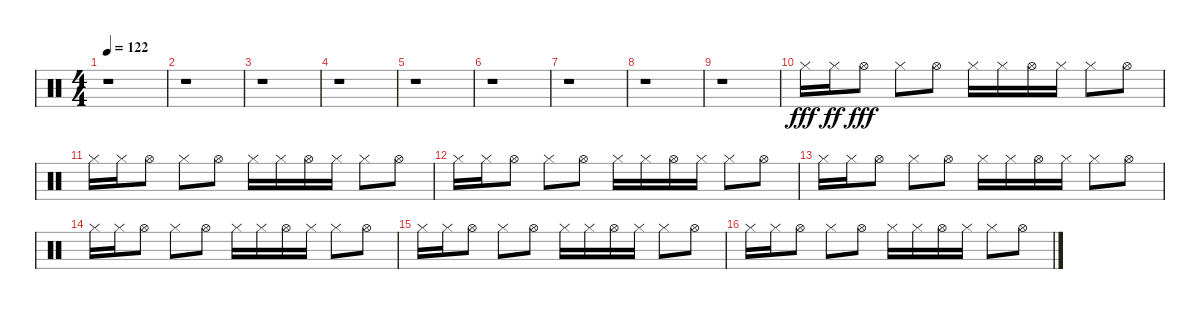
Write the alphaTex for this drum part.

\track "" {instrument percussion}
\staff {score}
\articulation defaults
\ts (4 4)
\tempo 122
\clef neutral
\ks c
r.1{dy fff} |
r.1 |
r.1 |
r.1 |
r.1 |
r.1 |
r.1 |
r.1 |
r.1 |
"Hi-Hat (closed)".16 "Hi-Hat (closed)".16{dy ff} "Hi-Hat (open)".8{dy fff} "Hi-Hat (closed)".8 "Hi-Hat (open)".8 "Hi-Hat (closed)".16 "Hi-Hat (closed)".16 "Hi-Hat (open)".16 "Hi-Hat (closed)".16 "Hi-Hat (closed)".8 "Hi-Hat (open)".8 |
"Hi-Hat (closed)".16 "Hi-Hat (closed)".16 "Hi-Hat (open)".8 "Hi-Hat (closed)".8 "Hi-Hat (open)".8 "Hi-Hat (closed)".16 "Hi-Hat (closed)".16 "Hi-Hat (open)".16 "Hi-Hat (closed)".16 "Hi-Hat (closed)".8 "Hi-Hat (open)".8 |
"Hi-Hat (closed)".16 "Hi-Hat (closed)".16 "Hi-Hat (open)".8 "Hi-Hat (closed)".8 "Hi-Hat (open)".8 "Hi-Hat (closed)".16 "Hi-Hat (closed)".16 "Hi-Hat (open)".16 "Hi-Hat (closed)".16 "Hi-Hat (closed)".8 "Hi-Hat (open)".8 |
"Hi-Hat (closed)".16 "Hi-Hat (closed)".16 "Hi-Hat (open)".8 "Hi-Hat (closed)".8 "Hi-Hat (open)".8 "Hi-Hat (closed)".16 "Hi-Hat (closed)".16 "Hi-Hat (open)".16 "Hi-Hat (closed)".16 "Hi-Hat (closed)".8 "Hi-Hat (open)".8 |
"Hi-Hat (closed)".16 "Hi-Hat (closed)".16 "Hi-Hat (open)".8 "Hi-Hat (closed)".8 "Hi-Hat (open)".8 "Hi-Hat (closed)".16 "Hi-Hat (closed)".16 "Hi-Hat (open)".16 "Hi-Hat (closed)".16 "Hi-Hat (closed)".8 "Hi-Hat (open)".8 |
"Hi-Hat (closed)".16 "Hi-Hat (closed)".16 "Hi-Hat (open)".8 "Hi-Hat (closed)".8 "Hi-Hat (open)".8 "Hi-Hat (closed)".16 "Hi-Hat (closed)".16 "Hi-Hat (open)".16 "Hi-Hat (closed)".16 "Hi-Hat (closed)".8 "Hi-Hat (open)".8 |
"Hi-Hat (closed)".16 "Hi-Hat (closed)".16 "Hi-Hat (open)".8 "Hi-Hat (closed)".8 "Hi-Hat (open)".8 "Hi-Hat (closed)".16 "Hi-Hat (closed)".16 "Hi-Hat (open)".16 "Hi-Hat (closed)".16 "Hi-Hat (closed)".8 "Hi-Hat (open)".8
